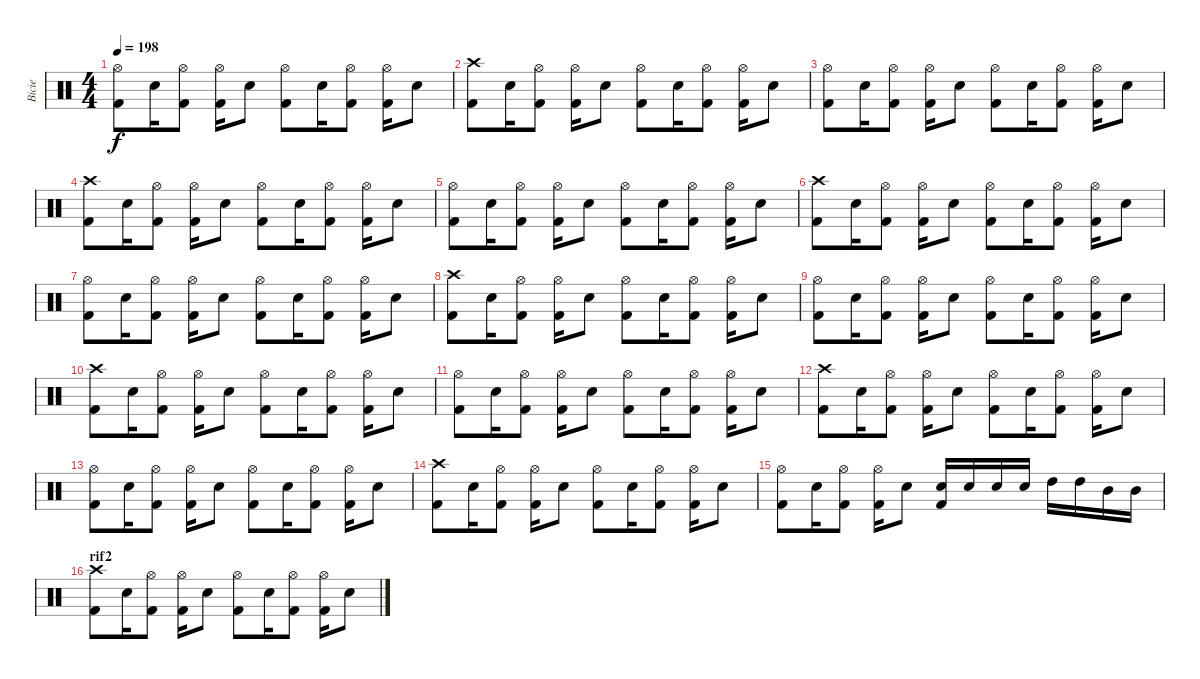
\track ("Bicie" "Bicie") {instrument percussion}
\staff {score}
\articulation defaults
\ts (4 4)
\tempo 198
\clef neutral
\ks c
("Hi-Hat (open)" "Kick (hit) 2").8{dy f} "Electric Snare (hit)".16 ("Hi-Hat (open)" "Kick (hit) 2").8 ("Hi-Hat (open)" "Kick (hit) 2").16 "Electric Snare (hit)".8 ("Hi-Hat (open)" "Kick (hit) 2").8 "Electric Snare (hit)".16 ("Hi-Hat (open)" "Kick (hit) 2").8 ("Hi-Hat (open)" "Kick (hit) 2").16 "Electric Snare (hit)".8 |
("Crash high (hit)" "Kick (hit) 2").8 "Electric Snare (hit)".16 ("Hi-Hat (open)" "Kick (hit) 2").8 ("Hi-Hat (open)" "Kick (hit) 2").16 "Electric Snare (hit)".8 ("Hi-Hat (open)" "Kick (hit) 2").8 "Electric Snare (hit)".16 ("Hi-Hat (open)" "Kick (hit) 2").8 ("Hi-Hat (open)" "Kick (hit) 2").16 "Electric Snare (hit)".8 |
("Hi-Hat (open)" "Kick (hit) 2").8 "Electric Snare (hit)".16 ("Hi-Hat (open)" "Kick (hit) 2").8 ("Hi-Hat (open)" "Kick (hit) 2").16 "Electric Snare (hit)".8 ("Hi-Hat (open)" "Kick (hit) 2").8 "Electric Snare (hit)".16 ("Hi-Hat (open)" "Kick (hit) 2").8 ("Hi-Hat (open)" "Kick (hit) 2").16 "Electric Snare (hit)".8 |
("Crash high (hit)" "Kick (hit) 2").8 "Electric Snare (hit)".16 ("Hi-Hat (open)" "Kick (hit) 2").8 ("Hi-Hat (open)" "Kick (hit) 2").16 "Electric Snare (hit)".8 ("Hi-Hat (open)" "Kick (hit) 2").8 "Electric Snare (hit)".16 ("Hi-Hat (open)" "Kick (hit) 2").8 ("Hi-Hat (open)" "Kick (hit) 2").16 "Electric Snare (hit)".8 |
("Hi-Hat (open)" "Kick (hit) 2").8 "Electric Snare (hit)".16 ("Hi-Hat (open)" "Kick (hit) 2").8 ("Hi-Hat (open)" "Kick (hit) 2").16 "Electric Snare (hit)".8 ("Hi-Hat (open)" "Kick (hit) 2").8 "Electric Snare (hit)".16 ("Hi-Hat (open)" "Kick (hit) 2").8 ("Hi-Hat (open)" "Kick (hit) 2").16 "Electric Snare (hit)".8 |
("Crash high (hit)" "Kick (hit) 2").8 "Electric Snare (hit)".16 ("Hi-Hat (open)" "Kick (hit) 2").8 ("Hi-Hat (open)" "Kick (hit) 2").16 "Electric Snare (hit)".8 ("Hi-Hat (open)" "Kick (hit) 2").8 "Electric Snare (hit)".16 ("Hi-Hat (open)" "Kick (hit) 2").8 ("Hi-Hat (open)" "Kick (hit) 2").16 "Electric Snare (hit)".8 |
("Hi-Hat (open)" "Kick (hit) 2").8 "Electric Snare (hit)".16 ("Hi-Hat (open)" "Kick (hit) 2").8 ("Hi-Hat (open)" "Kick (hit) 2").16 "Electric Snare (hit)".8 ("Hi-Hat (open)" "Kick (hit) 2").8 "Electric Snare (hit)".16 ("Hi-Hat (open)" "Kick (hit) 2").8 ("Hi-Hat (open)" "Kick (hit) 2").16 "Electric Snare (hit)".8 |
("Crash high (hit)" "Kick (hit) 2").8 "Electric Snare (hit)".16 ("Hi-Hat (open)" "Kick (hit) 2").8 ("Hi-Hat (open)" "Kick (hit) 2").16 "Electric Snare (hit)".8 ("Hi-Hat (open)" "Kick (hit) 2").8 "Electric Snare (hit)".16 ("Hi-Hat (open)" "Kick (hit) 2").8 ("Hi-Hat (open)" "Kick (hit) 2").16 "Electric Snare (hit)".8 |
("Hi-Hat (open)" "Kick (hit) 2").8 "Electric Snare (hit)".16 ("Hi-Hat (open)" "Kick (hit) 2").8 ("Hi-Hat (open)" "Kick (hit) 2").16 "Electric Snare (hit)".8 ("Hi-Hat (open)" "Kick (hit) 2").8 "Electric Snare (hit)".16 ("Hi-Hat (open)" "Kick (hit) 2").8 ("Hi-Hat (open)" "Kick (hit) 2").16 "Electric Snare (hit)".8 |
("Crash high (hit)" "Kick (hit) 2").8 "Electric Snare (hit)".16 ("Hi-Hat (open)" "Kick (hit) 2").8 ("Hi-Hat (open)" "Kick (hit) 2").16 "Electric Snare (hit)".8 ("Hi-Hat (open)" "Kick (hit) 2").8 "Electric Snare (hit)".16 ("Hi-Hat (open)" "Kick (hit) 2").8 ("Hi-Hat (open)" "Kick (hit) 2").16 "Electric Snare (hit)".8 |
("Hi-Hat (open)" "Kick (hit) 2").8 "Electric Snare (hit)".16 ("Hi-Hat (open)" "Kick (hit) 2").8 ("Hi-Hat (open)" "Kick (hit) 2").16 "Electric Snare (hit)".8 ("Hi-Hat (open)" "Kick (hit) 2").8 "Electric Snare (hit)".16 ("Hi-Hat (open)" "Kick (hit) 2").8 ("Hi-Hat (open)" "Kick (hit) 2").16 "Electric Snare (hit)".8 |
("Crash high (hit)" "Kick (hit) 2").8 "Electric Snare (hit)".16 ("Hi-Hat (open)" "Kick (hit) 2").8 ("Hi-Hat (open)" "Kick (hit) 2").16 "Electric Snare (hit)".8 ("Hi-Hat (open)" "Kick (hit) 2").8 "Electric Snare (hit)".16 ("Hi-Hat (open)" "Kick (hit) 2").8 ("Hi-Hat (open)" "Kick (hit) 2").16 "Electric Snare (hit)".8 |
("Hi-Hat (open)" "Kick (hit) 2").8 "Electric Snare (hit)".16 ("Hi-Hat (open)" "Kick (hit) 2").8 ("Hi-Hat (open)" "Kick (hit) 2").16 "Electric Snare (hit)".8 ("Hi-Hat (open)" "Kick (hit) 2").8 "Electric Snare (hit)".16 ("Hi-Hat (open)" "Kick (hit) 2").8 ("Hi-Hat (open)" "Kick (hit) 2").16 "Electric Snare (hit)".8 |
("Crash high (hit)" "Kick (hit) 2").8 "Electric Snare (hit)".16 ("Hi-Hat (open)" "Kick (hit) 2").8 ("Hi-Hat (open)" "Kick (hit) 2").16 "Electric Snare (hit)".8 ("Hi-Hat (open)" "Kick (hit) 2").8 "Electric Snare (hit)".16 ("Hi-Hat (open)" "Kick (hit) 2").8 ("Hi-Hat (open)" "Kick (hit) 2").16 "Electric Snare (hit)".8 |
("Hi-Hat (open)" "Kick (hit) 2").8 "Electric Snare (hit)".16 ("Hi-Hat (open)" "Kick (hit) 2").8 ("Hi-Hat (open)" "Kick (hit) 2").16 "Electric Snare (hit)".8 ("Electric Snare (hit)" "Kick (hit) 2").16 "Electric Snare (hit)".16 "Electric Snare (hit)".16 "Electric Snare (hit)".16 "High Tom (hit)".16 "High Tom (hit)".16 "Mid Tom (hit)".16 "Mid Tom (hit)".16 |
\section ("" "rif2")
("Crash high (hit)" "Kick (hit) 2").8 "Electric Snare (hit)".16 ("Hi-Hat (open)" "Kick (hit) 2").8 ("Hi-Hat (open)" "Kick (hit) 2").16 "Electric Snare (hit)".8 ("Hi-Hat (open)" "Kick (hit) 2").8 "Electric Snare (hit)".16 ("Hi-Hat (open)" "Kick (hit) 2").8 ("Hi-Hat (open)" "Kick (hit) 2").16 "Electric Snare (hit)".8
